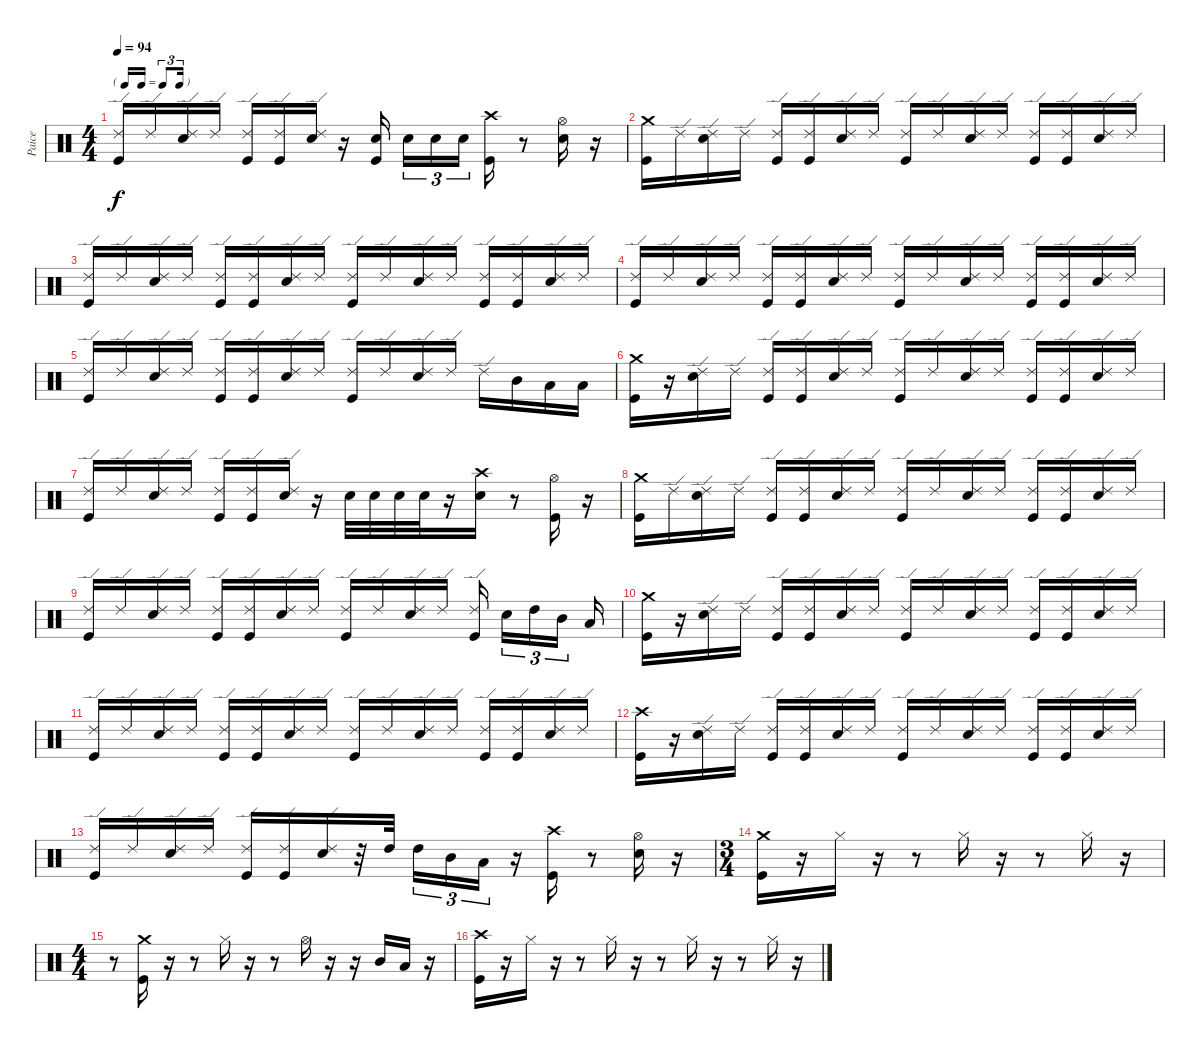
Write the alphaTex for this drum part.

\track ("Paice" "Paice") {instrument percussion}
\staff {score}
\articulation defaults
\ts (4 4)
\tf triplet16th
\tempo 94
\clef neutral
\ks c
("Ride (edge) 2" "Kick (hit)").16{dy f} "Ride (edge) 2".16 ("Ride (edge) 2" "Snare (hit) 2").16 "Ride (edge) 2".16 ("Ride (edge) 2" "Kick (hit)").16 ("Ride (edge) 2" "Kick (hit)").16 ("Ride (edge) 2" "Snare (hit) 2").16 r.16 ("Snare (hit) 2" "Kick (hit)").16{beam splitsecondary} "Snare (hit) 2".16{tu (3 2)} "Snare (hit) 2".16{tu (3 2)} "Snare (hit) 2".16{tu (3 2) beam splitsecondary} ("Kick (hit)" "Crash high (hit)").16 r.8 ("Hi-Hat (open)" "Snare (hit) 2").16 r.16 |
("Crash medium (hit)" "Kick (hit)").16 "Ride (edge) 2".16 ("Ride (edge) 2" "Snare (hit) 2").16 "Ride (edge) 2".16 ("Ride (edge) 2" "Kick (hit)").16 ("Ride (edge) 2" "Kick (hit)").16 ("Ride (edge) 2" "Snare (hit) 2").16 "Ride (edge) 2".16 ("Ride (edge) 2" "Kick (hit)").16 "Ride (edge) 2".16 ("Ride (edge) 2" "Snare (hit) 2").16 "Ride (edge) 2".16 ("Ride (edge) 2" "Kick (hit)").16 ("Ride (edge) 2" "Kick (hit)").16 ("Ride (edge) 2" "Snare (hit) 2").16 "Ride (edge) 2".16 |
("Ride (edge) 2" "Kick (hit)").16 "Ride (edge) 2".16 ("Ride (edge) 2" "Snare (hit) 2").16 "Ride (edge) 2".16 ("Ride (edge) 2" "Kick (hit)").16 ("Ride (edge) 2" "Kick (hit)").16 ("Ride (edge) 2" "Snare (hit) 2").16 "Ride (edge) 2".16 ("Ride (edge) 2" "Kick (hit)").16 "Ride (edge) 2".16 ("Ride (edge) 2" "Snare (hit) 2").16 "Ride (edge) 2".16 ("Ride (edge) 2" "Kick (hit)").16 ("Ride (edge) 2" "Kick (hit)").16 ("Ride (edge) 2" "Snare (hit) 2").16 "Ride (edge) 2".16 |
("Ride (edge) 2" "Kick (hit)").16 "Ride (edge) 2".16 ("Ride (edge) 2" "Snare (hit) 2").16 "Ride (edge) 2".16 ("Ride (edge) 2" "Kick (hit)").16 ("Ride (edge) 2" "Kick (hit)").16 ("Ride (edge) 2" "Snare (hit) 2").16 "Ride (edge) 2".16 ("Ride (edge) 2" "Kick (hit)").16 "Ride (edge) 2".16 ("Ride (edge) 2" "Snare (hit) 2").16 "Ride (edge) 2".16 ("Ride (edge) 2" "Kick (hit)").16 ("Ride (edge) 2" "Kick (hit)").16 ("Ride (edge) 2" "Snare (hit) 2").16 "Ride (edge) 2".16 |
("Ride (edge) 2" "Kick (hit)").16 "Ride (edge) 2".16 ("Ride (edge) 2" "Snare (hit) 2").16 "Ride (edge) 2".16 ("Ride (edge) 2" "Kick (hit)").16 ("Ride (edge) 2" "Kick (hit)").16 ("Ride (edge) 2" "Snare (hit) 2").16 "Ride (edge) 2".16 ("Ride (edge) 2" "Kick (hit)").16 "Ride (edge) 2".16 ("Ride (edge) 2" "Snare (hit) 2").16 "Ride (edge) 2".16 "Ride (edge) 2".16 "Mid Tom (hit)".16 "Low Tom (hit)".16 "Low Tom (hit)".16 |
("Crash medium (hit)" "Kick (hit)").16 r.16 ("Ride (edge) 2" "Snare (hit) 2").16 "Ride (edge) 2".16 ("Ride (edge) 2" "Kick (hit)").16 ("Ride (edge) 2" "Kick (hit)").16 ("Ride (edge) 2" "Snare (hit) 2").16 "Ride (edge) 2".16 ("Ride (edge) 2" "Kick (hit)").16 "Ride (edge) 2".16 ("Ride (edge) 2" "Snare (hit) 2").16 "Ride (edge) 2".16 ("Ride (edge) 2" "Kick (hit)").16 ("Ride (edge) 2" "Kick (hit)").16 ("Ride (edge) 2" "Snare (hit) 2").16 "Ride (edge) 2".16 |
("Ride (edge) 2" "Kick (hit)").16 "Ride (edge) 2".16 ("Ride (edge) 2" "Snare (hit) 2").16 "Ride (edge) 2".16 ("Ride (edge) 2" "Kick (hit)").16 ("Ride (edge) 2" "Kick (hit)").16 ("Ride (edge) 2" "Snare (hit) 2").16 r.16 "Snare (hit) 2".32 "Snare (hit) 2".32 "Snare (hit) 2".32 "Snare (hit) 2".32 r.16 ("Snare (hit) 2" "Crash high (hit)").16 r.8 ("Hi-Hat (open)" "Kick (hit)").16 r.16 |
("Crash medium (hit)" "Kick (hit)").16 "Ride (edge) 2".16 ("Ride (edge) 2" "Snare (hit) 2").16 "Ride (edge) 2".16 ("Ride (edge) 2" "Kick (hit)").16 ("Ride (edge) 2" "Kick (hit)").16 ("Ride (edge) 2" "Snare (hit) 2").16 "Ride (edge) 2".16 ("Ride (edge) 2" "Kick (hit)").16 "Ride (edge) 2".16 ("Ride (edge) 2" "Snare (hit) 2").16 "Ride (edge) 2".16 ("Ride (edge) 2" "Kick (hit)").16 ("Ride (edge) 2" "Kick (hit)").16 ("Ride (edge) 2" "Snare (hit) 2").16 "Ride (edge) 2".16 |
("Ride (edge) 2" "Kick (hit)").16 "Ride (edge) 2".16 ("Ride (edge) 2" "Snare (hit) 2").16 "Ride (edge) 2".16 ("Ride (edge) 2" "Kick (hit)").16 ("Ride (edge) 2" "Kick (hit)").16 ("Ride (edge) 2" "Snare (hit) 2").16 "Ride (edge) 2".16 ("Ride (edge) 2" "Kick (hit)").16 "Ride (edge) 2".16 ("Ride (edge) 2" "Snare (hit) 2").16 "Ride (edge) 2".16 ("Ride (edge) 2" "Kick (hit)").16{beam splitsecondary} "Snare (hit) 2".16{tu (3 2)} "High Tom (hit)".16{tu (3 2)} "Mid Tom (hit)".16{tu (3 2) beam splitsecondary} "Low Tom (hit)".16 |
("Crash medium (hit)" "Kick (hit)").16 r.16 ("Ride (edge) 2" "Snare (hit) 2").16 "Ride (edge) 2".16 ("Ride (edge) 2" "Kick (hit)").16 ("Ride (edge) 2" "Kick (hit)").16 ("Ride (edge) 2" "Snare (hit) 2").16 "Ride (edge) 2".16 ("Ride (edge) 2" "Kick (hit)").16 "Ride (edge) 2".16 ("Ride (edge) 2" "Snare (hit) 2").16 "Ride (edge) 2".16 ("Ride (edge) 2" "Kick (hit)").16 ("Ride (edge) 2" "Kick (hit)").16 ("Ride (edge) 2" "Snare (hit) 2").16 "Ride (edge) 2".16 |
("Ride (edge) 2" "Kick (hit)").16 "Ride (edge) 2".16 ("Ride (edge) 2" "Snare (hit) 2").16 "Ride (edge) 2".16 ("Ride (edge) 2" "Kick (hit)").16 ("Ride (edge) 2" "Kick (hit)").16 ("Ride (edge) 2" "Snare (hit) 2").16 "Ride (edge) 2".16 ("Ride (edge) 2" "Kick (hit)").16 "Ride (edge) 2".16 ("Ride (edge) 2" "Snare (hit) 2").16 "Ride (edge) 2".16 ("Ride (edge) 2" "Kick (hit)").16 ("Ride (edge) 2" "Kick (hit)").16 ("Ride (edge) 2" "Snare (hit) 2").16 "Ride (edge) 2".16 |
("Crash high (hit)" "Kick (hit)").16 r.16 ("Ride (edge) 2" "Snare (hit) 2").16 "Ride (edge) 2".16 ("Ride (edge) 2" "Kick (hit)").16 ("Ride (edge) 2" "Kick (hit)").16 ("Ride (edge) 2" "Snare (hit) 2").16 "Ride (edge) 2".16 ("Ride (edge) 2" "Kick (hit)").16 "Ride (edge) 2".16 ("Ride (edge) 2" "Snare (hit) 2").16 "Ride (edge) 2".16 ("Ride (edge) 2" "Kick (hit)").16 ("Ride (edge) 2" "Kick (hit)").16 ("Ride (edge) 2" "Snare (hit) 2").16 "Ride (edge) 2".16 |
("Ride (edge) 2" "Kick (hit)").16 "Ride (edge) 2".16 ("Ride (edge) 2" "Snare (hit) 2").16 "Ride (edge) 2".16 ("Ride (edge) 2" "Kick (hit)").16 ("Ride (edge) 2" "Kick (hit)").16 ("Ride (edge) 2" "Snare (hit) 2").16 r.32 "High Tom (hit)".32 "High Tom (hit)".16{tu (3 2)} "Mid Tom (hit)".16{tu (3 2)} "Low Tom (hit)".16{tu (3 2)} r.16 ("Crash high (hit)" "Kick (hit)").16 r.8 ("Hi-Hat (open)" "Snare (hit) 2").16 r.16 |
\ts (3 4)
("Crash medium (hit)" "Kick (hit)").16 r.16 "Hi-Hat (closed)".16 r.16 r.8 "Hi-Hat (closed)".16 r.16 r.8 "Hi-Hat (closed)".16 r.16 |
\ts (4 4)
r.8 ("Crash medium (hit)" "Kick (hit)").16 r.16 r.8 "Hi-Hat (closed)".16 r.16 r.8 "Hi-Hat (open)".16 r.16 r.16 "Mid Tom (hit)".16 "Low Tom (hit)".16 r.16 |
("Crash high (hit)" "Kick (hit)").16 r.16 "Hi-Hat (closed)".16 r.16 r.8 "Hi-Hat (closed)".16 r.16 r.8 "Hi-Hat (closed)".16 r.16 r.8 "Hi-Hat (closed)".16 r.16
